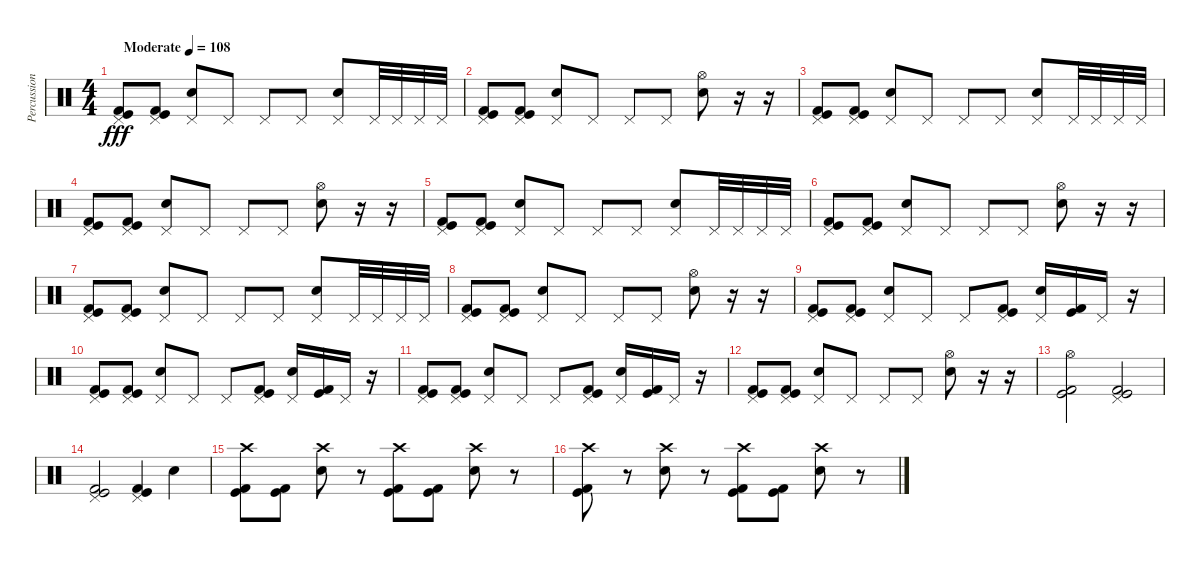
\track ("Percussion" "Percussion") {instrument percussion}
\staff {score}
\articulation defaults
\ts (4 4)
\tempo (108 "Moderate")
\clef neutral
\ks c
("Pedal Hi-Hat (hit)" "Kick (hit) 2" "Kick (hit)").8{dy fff} ("Pedal Hi-Hat (hit)" "Kick (hit) 2" "Kick (hit)").8 ("Pedal Hi-Hat (hit)" "Snare (hit) 2").8 "Pedal Hi-Hat (hit)".8 "Pedal Hi-Hat (hit)".8 "Pedal Hi-Hat (hit)".8 ("Pedal Hi-Hat (hit)" "Snare (hit) 2").8 "Pedal Hi-Hat (hit)".32 "Pedal Hi-Hat (hit)".32 "Pedal Hi-Hat (hit)".32 "Pedal Hi-Hat (hit)".32 |
("Pedal Hi-Hat (hit)" "Kick (hit) 2" "Kick (hit)").8 ("Pedal Hi-Hat (hit)" "Kick (hit) 2" "Kick (hit)").8 ("Pedal Hi-Hat (hit)" "Snare (hit) 2").8 "Pedal Hi-Hat (hit)".8 "Pedal Hi-Hat (hit)".8 "Pedal Hi-Hat (hit)".8 ("Hi-Hat (open)" "Snare (hit) 2").8 r.16 r.16 |
("Pedal Hi-Hat (hit)" "Kick (hit) 2" "Kick (hit)").8 ("Pedal Hi-Hat (hit)" "Kick (hit) 2" "Kick (hit)").8 ("Pedal Hi-Hat (hit)" "Snare (hit) 2").8 "Pedal Hi-Hat (hit)".8 "Pedal Hi-Hat (hit)".8 "Pedal Hi-Hat (hit)".8 ("Pedal Hi-Hat (hit)" "Snare (hit) 2").8 "Pedal Hi-Hat (hit)".32 "Pedal Hi-Hat (hit)".32 "Pedal Hi-Hat (hit)".32 "Pedal Hi-Hat (hit)".32 |
("Pedal Hi-Hat (hit)" "Kick (hit) 2" "Kick (hit)").8 ("Pedal Hi-Hat (hit)" "Kick (hit) 2" "Kick (hit)").8 ("Pedal Hi-Hat (hit)" "Snare (hit) 2").8 "Pedal Hi-Hat (hit)".8 "Pedal Hi-Hat (hit)".8 "Pedal Hi-Hat (hit)".8 ("Hi-Hat (open)" "Snare (hit) 2").8 r.16 r.16 |
("Pedal Hi-Hat (hit)" "Kick (hit) 2" "Kick (hit)").8 ("Pedal Hi-Hat (hit)" "Kick (hit) 2" "Kick (hit)").8 ("Pedal Hi-Hat (hit)" "Snare (hit) 2").8 "Pedal Hi-Hat (hit)".8 "Pedal Hi-Hat (hit)".8 "Pedal Hi-Hat (hit)".8 ("Pedal Hi-Hat (hit)" "Snare (hit) 2").8 "Pedal Hi-Hat (hit)".32 "Pedal Hi-Hat (hit)".32 "Pedal Hi-Hat (hit)".32 "Pedal Hi-Hat (hit)".32 |
("Pedal Hi-Hat (hit)" "Kick (hit) 2" "Kick (hit)").8 ("Pedal Hi-Hat (hit)" "Kick (hit) 2" "Kick (hit)").8 ("Pedal Hi-Hat (hit)" "Snare (hit) 2").8 "Pedal Hi-Hat (hit)".8 "Pedal Hi-Hat (hit)".8 "Pedal Hi-Hat (hit)".8 ("Hi-Hat (open)" "Snare (hit) 2").8 r.16 r.16 |
("Pedal Hi-Hat (hit)" "Kick (hit) 2" "Kick (hit)").8 ("Pedal Hi-Hat (hit)" "Kick (hit) 2" "Kick (hit)").8 ("Pedal Hi-Hat (hit)" "Snare (hit) 2").8 "Pedal Hi-Hat (hit)".8 "Pedal Hi-Hat (hit)".8 "Pedal Hi-Hat (hit)".8 ("Pedal Hi-Hat (hit)" "Snare (hit) 2").8 "Pedal Hi-Hat (hit)".32 "Pedal Hi-Hat (hit)".32 "Pedal Hi-Hat (hit)".32 "Pedal Hi-Hat (hit)".32 |
("Pedal Hi-Hat (hit)" "Kick (hit) 2" "Kick (hit)").8 ("Pedal Hi-Hat (hit)" "Kick (hit) 2" "Kick (hit)").8 ("Pedal Hi-Hat (hit)" "Snare (hit) 2").8 "Pedal Hi-Hat (hit)".8 "Pedal Hi-Hat (hit)".8 "Pedal Hi-Hat (hit)".8 ("Hi-Hat (open)" "Snare (hit) 2").8 r.16 r.16 |
("Pedal Hi-Hat (hit)" "Kick (hit) 2" "Kick (hit)").8 ("Pedal Hi-Hat (hit)" "Kick (hit) 2" "Kick (hit)").8 ("Pedal Hi-Hat (hit)" "Snare (hit) 2").8 "Pedal Hi-Hat (hit)".8 "Pedal Hi-Hat (hit)".8 ("Pedal Hi-Hat (hit)" "Kick (hit) 2" "Kick (hit)").8 ("Pedal Hi-Hat (hit)" "Snare (hit) 2").16 ("Kick (hit) 2" "Kick (hit)").16 "Pedal Hi-Hat (hit)".16 r.16 |
("Pedal Hi-Hat (hit)" "Kick (hit) 2" "Kick (hit)").8 ("Pedal Hi-Hat (hit)" "Kick (hit) 2" "Kick (hit)").8 ("Pedal Hi-Hat (hit)" "Snare (hit) 2").8 "Pedal Hi-Hat (hit)".8 "Pedal Hi-Hat (hit)".8 ("Pedal Hi-Hat (hit)" "Kick (hit) 2" "Kick (hit)").8 ("Pedal Hi-Hat (hit)" "Snare (hit) 2").16 ("Kick (hit) 2" "Kick (hit)").16 "Pedal Hi-Hat (hit)".16 r.16 |
("Pedal Hi-Hat (hit)" "Kick (hit) 2" "Kick (hit)").8 ("Pedal Hi-Hat (hit)" "Kick (hit) 2" "Kick (hit)").8 ("Pedal Hi-Hat (hit)" "Snare (hit) 2").8 "Pedal Hi-Hat (hit)".8 "Pedal Hi-Hat (hit)".8 ("Pedal Hi-Hat (hit)" "Kick (hit) 2" "Kick (hit)").8 ("Pedal Hi-Hat (hit)" "Snare (hit) 2").16 ("Kick (hit) 2" "Kick (hit)").16 "Pedal Hi-Hat (hit)".16 r.16 |
("Pedal Hi-Hat (hit)" "Kick (hit) 2" "Kick (hit)").8 ("Pedal Hi-Hat (hit)" "Kick (hit) 2" "Kick (hit)").8 ("Pedal Hi-Hat (hit)" "Snare (hit) 2").8 "Pedal Hi-Hat (hit)".8 "Pedal Hi-Hat (hit)".8 "Pedal Hi-Hat (hit)".8 ("Hi-Hat (open)" "Snare (hit) 2").8 r.16 r.16 |
("Hi-Hat (open)" "Kick (hit) 2" "Kick (hit)").2 ("Pedal Hi-Hat (hit)" "Kick (hit) 2" "Kick (hit)").2 |
("Pedal Hi-Hat (hit)" "Kick (hit) 2" "Kick (hit)").2 ("Pedal Hi-Hat (hit)" "Kick (hit) 2" "Kick (hit)").4 "Snare (hit) 2".4 |
("Crash high (hit)" "Kick (hit) 2" "Kick (hit)").8 ("Kick (hit) 2" "Kick (hit)").8 ("Crash high (hit)" "Snare (hit) 2").8 r.8 ("Crash high (hit)" "Kick (hit) 2" "Kick (hit)").8 ("Kick (hit) 2" "Kick (hit)").8 ("Crash high (hit)" "Snare (hit) 2").8 r.8 |
("Crash high (hit)" "Kick (hit) 2" "Kick (hit)").8 r.8 ("Crash high (hit)" "Snare (hit) 2").8 r.8 ("Crash high (hit)" "Kick (hit) 2" "Kick (hit)").8 ("Kick (hit) 2" "Kick (hit)").8 ("Crash high (hit)" "Snare (hit) 2").8 r.8
